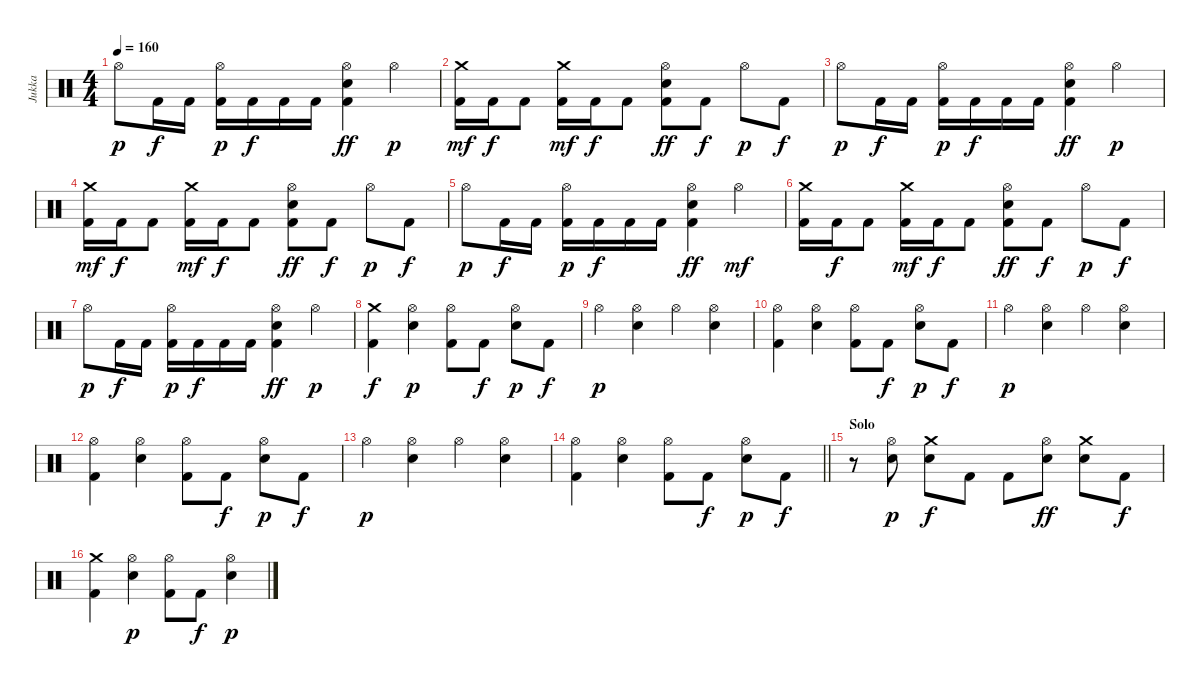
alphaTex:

\track ("Jukka" "Jukka") {instrument percussion}
\staff {score}
\articulation defaults
\ts (4 4)
\tempo 160
\clef neutral
\ks c "Hi-Hat (open)".8{dy p} "Kick (hit) 2".16{dy f} "Kick (hit) 2".16
("Hi-Hat (open)" "Kick (hit) 2").16{dy p} "Kick (hit) 2".16{dy f} "Kick (hit) 2".16 "Kick (hit) 2".16 ("Hi-Hat (open)" "Snare (hit) 2" "Kick (hit) 2").4{dy ff} "Hi-Hat (open)".4{dy p} |
("Crash medium (hit)" "Kick (hit) 2").16{dy mf} "Kick (hit) 2".16{dy f} "Kick (hit) 2".8 ("Crash medium (hit)" "Kick (hit) 2").16{dy mf} "Kick (hit) 2".16{dy f} "Kick (hit) 2".8 ("Hi-Hat (open)" "Snare (hit) 2" "Kick (hit) 2").8{dy ff} "Kick (hit) 2".8{dy f} "Hi-Hat (open)".8{dy p} "Kick (hit) 2".8{dy f} |
"Hi-Hat (open)".8{dy p} "Kick (hit) 2".16{dy f} "Kick (hit) 2".16 ("Hi-Hat (open)" "Kick (hit) 2").16{dy p} "Kick (hit) 2".16{dy f} "Kick (hit) 2".16 "Kick (hit) 2".16 ("Hi-Hat (open)" "Snare (hit) 2" "Kick (hit) 2").4{dy ff} "Hi-Hat (open)".4{dy p} |
("Crash medium (hit)" "Kick (hit) 2").16{dy mf} "Kick (hit) 2".16{dy f} "Kick (hit) 2".8 ("Crash medium (hit)" "Kick (hit) 2").16{dy mf} "Kick (hit) 2".16{dy f} "Kick (hit) 2".8 ("Hi-Hat (open)" "Snare (hit) 2" "Kick (hit) 2").8{dy ff} "Kick (hit) 2".8{dy f} "Hi-Hat (open)".8{dy p} "Kick (hit) 2".8{dy f} |
"Hi-Hat (open)".8{dy p} "Kick (hit) 2".16{dy f} "Kick (hit) 2".16 ("Hi-Hat (open)" "Kick (hit) 2").16{dy p} "Kick (hit) 2".16{dy f} "Kick (hit) 2".16 "Kick (hit) 2".16 ("Hi-Hat (open)" "Snare (hit) 2" "Kick (hit) 2").4{dy ff} "Hi-Hat (open)".4{dy mf} |
("Crash medium (hit)" "Kick (hit) 2").16 "Kick (hit) 2".16{dy f} "Kick (hit) 2".8 ("Crash medium (hit)" "Kick (hit) 2").16{dy mf} "Kick (hit) 2".16{dy f} "Kick (hit) 2".8 ("Hi-Hat (open)" "Snare (hit) 2" "Kick (hit) 2").8{dy ff} "Kick (hit) 2".8{dy f} "Hi-Hat (open)".8{dy p} "Kick (hit) 2".8{dy f} |
"Hi-Hat (open)".8{dy p} "Kick (hit) 2".16{dy f} "Kick (hit) 2".16 ("Hi-Hat (open)" "Kick (hit) 2").16{dy p} "Kick (hit) 2".16{dy f} "Kick (hit) 2".16 "Kick (hit) 2".16 ("Hi-Hat (open)" "Snare (hit) 2" "Kick (hit) 2").4{dy ff} "Hi-Hat (open)".4{dy p} |
("Crash medium (hit)" "Kick (hit) 2").4{dy f} ("Hi-Hat (open)" "Snare (hit) 2").4{dy p} ("Hi-Hat (open)" "Kick (hit) 2").8 "Kick (hit) 2".8{dy f} ("Hi-Hat (open)" "Snare (hit) 2").8{dy p} "Kick (hit) 2".8{dy f} |
"Hi-Hat (open)".4{dy p} ("Hi-Hat (open)" "Snare (hit) 2").4 "Hi-Hat (open)".4 ("Hi-Hat (open)" "Snare (hit) 2").4 |
("Hi-Hat (open)" "Kick (hit) 2").4 ("Hi-Hat (open)" "Snare (hit) 2").4 ("Hi-Hat (open)" "Kick (hit) 2").8 "Kick (hit) 2".8{dy f} ("Hi-Hat (open)" "Snare (hit) 2").8{dy p} "Kick (hit) 2".8{dy f} |
"Hi-Hat (open)".4{dy p} ("Hi-Hat (open)" "Snare (hit) 2").4 "Hi-Hat (open)".4 ("Hi-Hat (open)" "Snare (hit) 2").4 |
("Hi-Hat (open)" "Kick (hit) 2").4 ("Hi-Hat (open)" "Snare (hit) 2").4 ("Hi-Hat (open)" "Kick (hit) 2").8 "Kick (hit) 2".8{dy f} ("Hi-Hat (open)" "Snare (hit) 2").8{dy p} "Kick (hit) 2".8{dy f} |
"Hi-Hat (open)".4{dy p} ("Hi-Hat (open)" "Snare (hit) 2").4 "Hi-Hat (open)".4 ("Hi-Hat (open)" "Snare (hit) 2").4 |
\barLineRight lightlight
("Hi-Hat (open)" "Kick (hit) 2").4 ("Hi-Hat (open)" "Snare (hit) 2").4 ("Hi-Hat (open)" "Kick (hit) 2").8 "Kick (hit) 2".8{dy f} ("Hi-Hat (open)" "Snare (hit) 2").8{dy p} "Kick (hit) 2".8{dy f} |
\section ("" "Solo")
r.8 ("Hi-Hat (open)" "Snare (hit) 2").8{dy p} ("Crash medium (hit)" "Snare (hit) 2").8{dy f} "Kick (hit) 2".8 "Kick (hit) 2".8 ("Hi-Hat (open)" "Snare (hit) 2").8{dy ff} ("Crash medium (hit)" "Snare (hit) 2").8 "Kick (hit) 2".8{dy f} |
("Crash medium (hit)" "Kick (hit) 2").4 ("Hi-Hat (open)" "Snare (hit) 2").4{dy p} ("Hi-Hat (open)" "Kick (hit) 2").8 "Kick (hit) 2".8{dy f} ("Hi-Hat (open)" "Snare (hit) 2").4{dy p}
